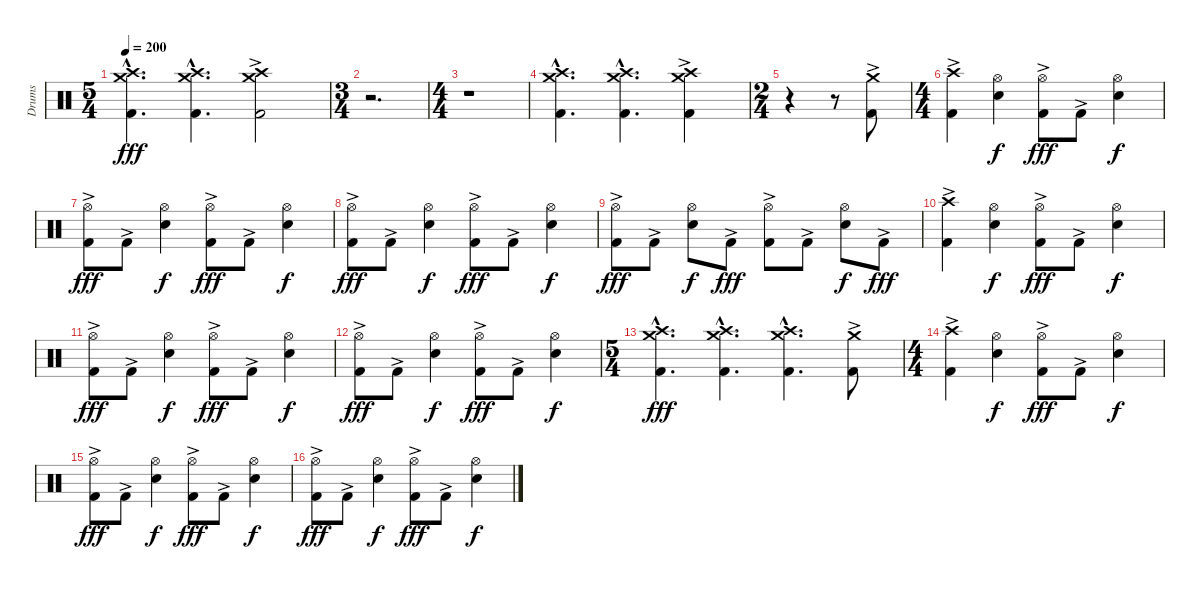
\track ("Drums" "Drums") {instrument percussion}
\staff {score}
\articulation defaults
\ts (5 4)
\tempo 200
\clef neutral
\ks c
("Crash high (hit)"{hac} "Crash medium (hit)"{hac} "Kick (hit) 2"{hac}).4{d dy fff} ("Crash high (hit)"{hac} "Crash medium (hit)"{hac} "Kick (hit) 2"{hac}).4{d} ("Crash high (hit)" "Crash medium (hit)" "Kick (hit) 2"{ac}).2 |
\ts (3 4)
r.2{d} |
\ts (4 4)
r.1 |
("Crash high (hit)"{hac} "Crash medium (hit)"{hac} "Kick (hit) 2"{hac}).4{d} ("Crash high (hit)"{hac} "Crash medium (hit)"{hac} "Kick (hit) 2"{hac}).4{d} ("Crash high (hit)" "Crash medium (hit)" "Kick (hit) 2"{ac}).4 |
\ts (2 4)
r.4 r.8 ("Crash medium (hit)" "Kick (hit) 2"{ac}).8 |
\ts (4 4)
("Crash high (hit)" "Kick (hit) 2"{ac}).4 ("Hi-Hat (open)" "Snare (hit) 2").4{dy f} ("Hi-Hat (open)" "Kick (hit) 2"{ac}).8{dy fff} "Kick (hit) 2"{ac}.8 ("Hi-Hat (open)" "Snare (hit) 2").4{dy f} |
("Hi-Hat (open)" "Kick (hit) 2"{ac}).8{dy fff} "Kick (hit) 2"{ac}.8 ("Hi-Hat (open)" "Snare (hit) 2").4{dy f} ("Hi-Hat (open)" "Kick (hit) 2"{ac}).8{dy fff} "Kick (hit) 2"{ac}.8 ("Hi-Hat (open)" "Snare (hit) 2").4{dy f} |
("Hi-Hat (open)" "Kick (hit) 2"{ac}).8{dy fff} "Kick (hit) 2"{ac}.8 ("Hi-Hat (open)" "Snare (hit) 2").4{dy f} ("Hi-Hat (open)" "Kick (hit) 2"{ac}).8{dy fff} "Kick (hit) 2"{ac}.8 ("Hi-Hat (open)" "Snare (hit) 2").4{dy f} |
("Hi-Hat (open)" "Kick (hit) 2"{ac}).8{dy fff} "Kick (hit) 2"{ac}.8 ("Hi-Hat (open)" "Snare (hit) 2").8{dy f} "Kick (hit) 2"{ac}.8{dy fff} ("Hi-Hat (open)" "Kick (hit) 2"{ac}).8 "Kick (hit) 2"{ac}.8 ("Hi-Hat (open)" "Snare (hit) 2").8{dy f} "Kick (hit) 2"{ac}.8{dy fff} |
("Crash high (hit)" "Kick (hit) 2"{ac}).4 ("Hi-Hat (open)" "Snare (hit) 2").4{dy f} ("Hi-Hat (open)" "Kick (hit) 2"{ac}).8{dy fff} "Kick (hit) 2"{ac}.8 ("Hi-Hat (open)" "Snare (hit) 2").4{dy f} |
("Hi-Hat (open)" "Kick (hit) 2"{ac}).8{dy fff} "Kick (hit) 2"{ac}.8 ("Hi-Hat (open)" "Snare (hit) 2").4{dy f} ("Hi-Hat (open)" "Kick (hit) 2"{ac}).8{dy fff} "Kick (hit) 2"{ac}.8 ("Hi-Hat (open)" "Snare (hit) 2").4{dy f} |
("Hi-Hat (open)" "Kick (hit) 2"{ac}).8{dy fff} "Kick (hit) 2"{ac}.8 ("Hi-Hat (open)" "Snare (hit) 2").4{dy f} ("Hi-Hat (open)" "Kick (hit) 2"{ac}).8{dy fff} "Kick (hit) 2"{ac}.8 ("Hi-Hat (open)" "Snare (hit) 2").4{dy f} |
\ts (5 4)
("Crash high (hit)"{hac} "Crash medium (hit)"{hac} "Kick (hit) 2"{hac}).4{d dy fff} ("Crash high (hit)"{hac} "Crash medium (hit)"{hac} "Kick (hit) 2"{hac}).4{d} ("Crash high (hit)"{hac} "Crash medium (hit)"{hac} "Kick (hit) 2"{hac}).4{d} ("Crash medium (hit)" "Kick (hit) 2"{ac}).8 |
\ts (4 4)
("Crash high (hit)" "Kick (hit) 2"{ac}).4 ("Hi-Hat (open)" "Snare (hit) 2").4{dy f} ("Hi-Hat (open)" "Kick (hit) 2"{ac}).8{dy fff} "Kick (hit) 2"{ac}.8 ("Hi-Hat (open)" "Snare (hit) 2").4{dy f} |
("Hi-Hat (open)" "Kick (hit) 2"{ac}).8{dy fff} "Kick (hit) 2"{ac}.8 ("Hi-Hat (open)" "Snare (hit) 2").4{dy f} ("Hi-Hat (open)" "Kick (hit) 2"{ac}).8{dy fff} "Kick (hit) 2"{ac}.8 ("Hi-Hat (open)" "Snare (hit) 2").4{dy f} |
("Hi-Hat (open)" "Kick (hit) 2"{ac}).8{dy fff} "Kick (hit) 2"{ac}.8 ("Hi-Hat (open)" "Snare (hit) 2").4{dy f} ("Hi-Hat (open)" "Kick (hit) 2"{ac}).8{dy fff} "Kick (hit) 2"{ac}.8 ("Hi-Hat (open)" "Snare (hit) 2").4{dy f}
